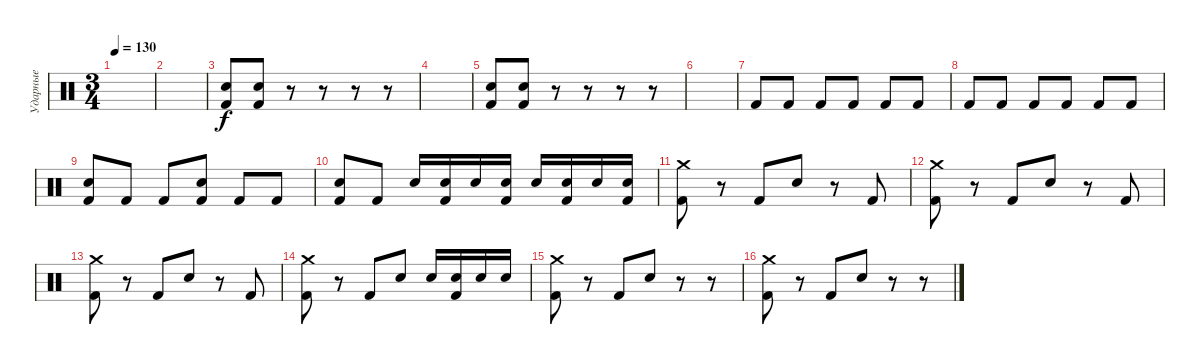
\track ("Ударные" "Ударные") {instrument percussion}
\staff {score}
\articulation defaults
\ts (3 4)
\tempo 130
\clef neutral
\ks c
|
|
("Electric Snare (hit)" "Kick (hit) 2").8 ("Electric Snare (hit)" "Kick (hit) 2").8 r.8 r.8 r.8 r.8 |
|
("Electric Snare (hit)" "Kick (hit) 2").8 ("Electric Snare (hit)" "Kick (hit) 2").8 r.8 r.8 r.8 r.8 |
|
"Kick (hit) 2".8 "Kick (hit) 2".8 "Kick (hit) 2".8 "Kick (hit) 2".8 "Kick (hit) 2".8 "Kick (hit) 2".8 |
"Kick (hit) 2".8 "Kick (hit) 2".8 "Kick (hit) 2".8 "Kick (hit) 2".8 "Kick (hit) 2".8 "Kick (hit) 2".8 |
("Electric Snare (hit)" "Kick (hit) 2").8 "Kick (hit) 2".8 "Kick (hit) 2".8 ("Electric Snare (hit)" "Kick (hit) 2").8 "Kick (hit) 2".8 "Kick (hit) 2".8 |
("Electric Snare (hit)" "Kick (hit) 2").8 "Kick (hit) 2".8 "Electric Snare (hit)".16 ("Electric Snare (hit)" "Kick (hit) 2").16 "Electric Snare (hit)".16 ("Electric Snare (hit)" "Kick (hit) 2").16 "Snare (hit) 2".16 ("Snare (hit) 2" "Kick (hit) 2").16 "Snare (hit) 2".16 ("Snare (hit) 2" "Kick (hit) 2").16 |
("Crash medium (hit)" "Kick (hit) 2").8 r.8 "Kick (hit) 2".8 "Electric Snare (hit)".8 r.8 "Kick (hit) 2".8 |
("Crash medium (hit)" "Kick (hit) 2").8 r.8 "Kick (hit) 2".8 "Electric Snare (hit)".8 r.8 "Kick (hit) 2".8 |
("Crash medium (hit)" "Kick (hit) 2").8 r.8 "Kick (hit) 2".8 "Electric Snare (hit)".8 r.8 "Kick (hit) 2".8 |
("Crash medium (hit)" "Kick (hit) 2").8 r.8 "Kick (hit) 2".8 "Electric Snare (hit)".8 "Electric Snare (hit)".16 ("Electric Snare (hit)" "Kick (hit) 2").16 "Electric Snare (hit)".16 "Electric Snare (hit)".16 |
("Crash medium (hit)" "Kick (hit) 2").8 r.8 "Kick (hit) 2".8 "Electric Snare (hit)".8 r.8 r.8 |
("Crash medium (hit)" "Kick (hit) 2").8 r.8 "Kick (hit) 2".8 "Electric Snare (hit)".8 r.8 r.8
